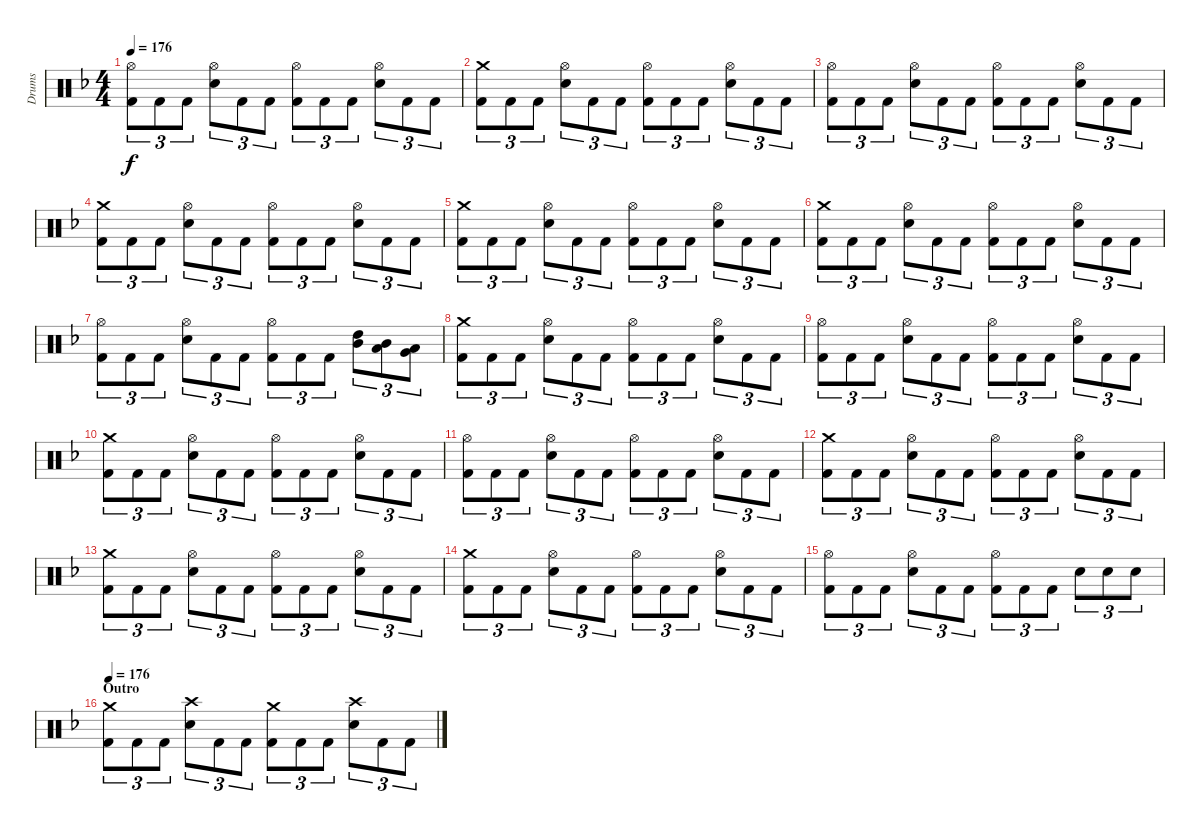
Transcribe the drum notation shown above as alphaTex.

\track ("Drums" "Drums") {instrument percussion}
\staff {score}
\articulation defaults
\ts (4 4)
\tempo 176
\clef neutral
\ks f
("Hi-Hat (open)" "Kick (hit) 2").8{tu (3 2) dy f} "Kick (hit) 2".8{tu (3 2)} "Kick (hit) 2".8{tu (3 2)} ("Hi-Hat (open)" "Snare (hit) 2").8{tu (3 2)} "Kick (hit) 2".8{tu (3 2)} "Kick (hit) 2".8{tu (3 2)} ("Hi-Hat (open)" "Kick (hit) 2").8{tu (3 2)} "Kick (hit) 2".8{tu (3 2)} "Kick (hit) 2".8{tu (3 2)} ("Hi-Hat (open)" "Snare (hit) 2").8{tu (3 2)} "Kick (hit) 2".8{tu (3 2)} "Kick (hit) 2".8{tu (3 2)} |
("Crash medium (hit)" "Kick (hit) 2").8{tu (3 2)} "Kick (hit) 2".8{tu (3 2)} "Kick (hit) 2".8{tu (3 2)} ("Hi-Hat (open)" "Snare (hit) 2").8{tu (3 2)} "Kick (hit) 2".8{tu (3 2)} "Kick (hit) 2".8{tu (3 2)} ("Hi-Hat (open)" "Kick (hit) 2").8{tu (3 2)} "Kick (hit) 2".8{tu (3 2)} "Kick (hit) 2".8{tu (3 2)} ("Hi-Hat (open)" "Snare (hit) 2").8{tu (3 2)} "Kick (hit) 2".8{tu (3 2)} "Kick (hit) 2".8{tu (3 2)} |
("Hi-Hat (open)" "Kick (hit) 2").8{tu (3 2)} "Kick (hit) 2".8{tu (3 2)} "Kick (hit) 2".8{tu (3 2)} ("Hi-Hat (open)" "Snare (hit) 2").8{tu (3 2)} "Kick (hit) 2".8{tu (3 2)} "Kick (hit) 2".8{tu (3 2)} ("Hi-Hat (open)" "Kick (hit) 2").8{tu (3 2)} "Kick (hit) 2".8{tu (3 2)} "Kick (hit) 2".8{tu (3 2)} ("Hi-Hat (open)" "Snare (hit) 2").8{tu (3 2)} "Kick (hit) 2".8{tu (3 2)} "Kick (hit) 2".8{tu (3 2)} |
("Crash medium (hit)" "Kick (hit) 2").8{tu (3 2)} "Kick (hit) 2".8{tu (3 2)} "Kick (hit) 2".8{tu (3 2)} ("Hi-Hat (open)" "Snare (hit) 2").8{tu (3 2)} "Kick (hit) 2".8{tu (3 2)} "Kick (hit) 2".8{tu (3 2)} ("Hi-Hat (open)" "Kick (hit) 2").8{tu (3 2)} "Kick (hit) 2".8{tu (3 2)} "Kick (hit) 2".8{tu (3 2)} ("Hi-Hat (open)" "Snare (hit) 2").8{tu (3 2)} "Kick (hit) 2".8{tu (3 2)} "Kick (hit) 2".8{tu (3 2)} |
("Crash medium (hit)" "Kick (hit) 2").8{tu (3 2)} "Kick (hit) 2".8{tu (3 2)} "Kick (hit) 2".8{tu (3 2)} ("Hi-Hat (open)" "Snare (hit) 2").8{tu (3 2)} "Kick (hit) 2".8{tu (3 2)} "Kick (hit) 2".8{tu (3 2)} ("Hi-Hat (open)" "Kick (hit) 2").8{tu (3 2)} "Kick (hit) 2".8{tu (3 2)} "Kick (hit) 2".8{tu (3 2)} ("Hi-Hat (open)" "Snare (hit) 2").8{tu (3 2)} "Kick (hit) 2".8{tu (3 2)} "Kick (hit) 2".8{tu (3 2)} |
("Crash medium (hit)" "Kick (hit) 2").8{tu (3 2)} "Kick (hit) 2".8{tu (3 2)} "Kick (hit) 2".8{tu (3 2)} ("Hi-Hat (open)" "Snare (hit) 2").8{tu (3 2)} "Kick (hit) 2".8{tu (3 2)} "Kick (hit) 2".8{tu (3 2)} ("Hi-Hat (open)" "Kick (hit) 2").8{tu (3 2)} "Kick (hit) 2".8{tu (3 2)} "Kick (hit) 2".8{tu (3 2)} ("Hi-Hat (open)" "Snare (hit) 2").8{tu (3 2)} "Kick (hit) 2".8{tu (3 2)} "Kick (hit) 2".8{tu (3 2)} |
("Hi-Hat (open)" "Kick (hit) 2").8{tu (3 2)} "Kick (hit) 2".8{tu (3 2)} "Kick (hit) 2".8{tu (3 2)} ("Hi-Hat (open)" "Snare (hit) 2").8{tu (3 2)} "Kick (hit) 2".8{tu (3 2)} "Kick (hit) 2".8{tu (3 2)} ("Hi-Hat (open)" "Kick (hit) 2").8{tu (3 2)} "Kick (hit) 2".8{tu (3 2)} "Kick (hit) 2".8{tu (3 2)} ("High Tom (hit)" "Mid Tom (hit)").8{tu (3 2)} ("Mid Tom (hit)" "Low Tom (hit)").8{tu (3 2)} ("Low Tom (hit)" "Very Low Tom (hit)").8{tu (3 2)} |
("Crash medium (hit)" "Kick (hit) 2").8{tu (3 2)} "Kick (hit) 2".8{tu (3 2)} "Kick (hit) 2".8{tu (3 2)} ("Hi-Hat (open)" "Snare (hit) 2").8{tu (3 2)} "Kick (hit) 2".8{tu (3 2)} "Kick (hit) 2".8{tu (3 2)} ("Hi-Hat (open)" "Kick (hit) 2").8{tu (3 2)} "Kick (hit) 2".8{tu (3 2)} "Kick (hit) 2".8{tu (3 2)} ("Hi-Hat (open)" "Snare (hit) 2").8{tu (3 2)} "Kick (hit) 2".8{tu (3 2)} "Kick (hit) 2".8{tu (3 2)} |
("Hi-Hat (open)" "Kick (hit) 2").8{tu (3 2)} "Kick (hit) 2".8{tu (3 2)} "Kick (hit) 2".8{tu (3 2)} ("Hi-Hat (open)" "Snare (hit) 2").8{tu (3 2)} "Kick (hit) 2".8{tu (3 2)} "Kick (hit) 2".8{tu (3 2)} ("Hi-Hat (open)" "Kick (hit) 2").8{tu (3 2)} "Kick (hit) 2".8{tu (3 2)} "Kick (hit) 2".8{tu (3 2)} ("Hi-Hat (open)" "Snare (hit) 2").8{tu (3 2)} "Kick (hit) 2".8{tu (3 2)} "Kick (hit) 2".8{tu (3 2)} |
("Crash medium (hit)" "Kick (hit) 2").8{tu (3 2)} "Kick (hit) 2".8{tu (3 2)} "Kick (hit) 2".8{tu (3 2)} ("Hi-Hat (open)" "Snare (hit) 2").8{tu (3 2)} "Kick (hit) 2".8{tu (3 2)} "Kick (hit) 2".8{tu (3 2)} ("Hi-Hat (open)" "Kick (hit) 2").8{tu (3 2)} "Kick (hit) 2".8{tu (3 2)} "Kick (hit) 2".8{tu (3 2)} ("Hi-Hat (open)" "Snare (hit) 2").8{tu (3 2)} "Kick (hit) 2".8{tu (3 2)} "Kick (hit) 2".8{tu (3 2)} |
("Hi-Hat (open)" "Kick (hit) 2").8{tu (3 2)} "Kick (hit) 2".8{tu (3 2)} "Kick (hit) 2".8{tu (3 2)} ("Hi-Hat (open)" "Snare (hit) 2").8{tu (3 2)} "Kick (hit) 2".8{tu (3 2)} "Kick (hit) 2".8{tu (3 2)} ("Hi-Hat (open)" "Kick (hit) 2").8{tu (3 2)} "Kick (hit) 2".8{tu (3 2)} "Kick (hit) 2".8{tu (3 2)} ("Hi-Hat (open)" "Snare (hit) 2").8{tu (3 2)} "Kick (hit) 2".8{tu (3 2)} "Kick (hit) 2".8{tu (3 2)} |
("Crash medium (hit)" "Kick (hit) 2").8{tu (3 2)} "Kick (hit) 2".8{tu (3 2)} "Kick (hit) 2".8{tu (3 2)} ("Hi-Hat (open)" "Snare (hit) 2").8{tu (3 2)} "Kick (hit) 2".8{tu (3 2)} "Kick (hit) 2".8{tu (3 2)} ("Hi-Hat (open)" "Kick (hit) 2").8{tu (3 2)} "Kick (hit) 2".8{tu (3 2)} "Kick (hit) 2".8{tu (3 2)} ("Hi-Hat (open)" "Snare (hit) 2").8{tu (3 2)} "Kick (hit) 2".8{tu (3 2)} "Kick (hit) 2".8{tu (3 2)} |
("Crash medium (hit)" "Kick (hit) 2").8{tu (3 2)} "Kick (hit) 2".8{tu (3 2)} "Kick (hit) 2".8{tu (3 2)} ("Hi-Hat (open)" "Snare (hit) 2").8{tu (3 2)} "Kick (hit) 2".8{tu (3 2)} "Kick (hit) 2".8{tu (3 2)} ("Hi-Hat (open)" "Kick (hit) 2").8{tu (3 2)} "Kick (hit) 2".8{tu (3 2)} "Kick (hit) 2".8{tu (3 2)} ("Hi-Hat (open)" "Snare (hit) 2").8{tu (3 2)} "Kick (hit) 2".8{tu (3 2)} "Kick (hit) 2".8{tu (3 2)} |
("Crash medium (hit)" "Kick (hit) 2").8{tu (3 2)} "Kick (hit) 2".8{tu (3 2)} "Kick (hit) 2".8{tu (3 2)} ("Hi-Hat (open)" "Snare (hit) 2").8{tu (3 2)} "Kick (hit) 2".8{tu (3 2)} "Kick (hit) 2".8{tu (3 2)} ("Hi-Hat (open)" "Kick (hit) 2").8{tu (3 2)} "Kick (hit) 2".8{tu (3 2)} "Kick (hit) 2".8{tu (3 2)} ("Hi-Hat (open)" "Snare (hit) 2").8{tu (3 2)} "Kick (hit) 2".8{tu (3 2)} "Kick (hit) 2".8{tu (3 2)} |
("Hi-Hat (open)" "Kick (hit) 2").8{tu (3 2)} "Kick (hit) 2".8{tu (3 2)} "Kick (hit) 2".8{tu (3 2)} ("Hi-Hat (open)" "Snare (hit) 2").8{tu (3 2)} "Kick (hit) 2".8{tu (3 2)} "Kick (hit) 2".8{tu (3 2)} ("Hi-Hat (open)" "Kick (hit) 2").8{tu (3 2)} "Kick (hit) 2".8{tu (3 2)} "Kick (hit) 2".8{tu (3 2)} "Snare (hit) 2".8{tu (3 2)} "Snare (hit) 2".8{tu (3 2)} "Snare (hit) 2".8{tu (3 2)} |
\section ("" "Outro")
\tempo 176
("Crash medium (hit)" "Kick (hit) 2").8{tu (3 2)} "Kick (hit) 2".8{tu (3 2)} "Kick (hit) 2".8{tu (3 2)} ("Crash high (hit)" "Snare (hit) 2").8{tu (3 2)} "Kick (hit) 2".8{tu (3 2)} "Kick (hit) 2".8{tu (3 2)} ("Crash medium (hit)" "Kick (hit) 2").8{tu (3 2)} "Kick (hit) 2".8{tu (3 2)} "Kick (hit) 2".8{tu (3 2)} ("Crash high (hit)" "Snare (hit) 2").8{tu (3 2)} "Kick (hit) 2".8{tu (3 2)} "Kick (hit) 2".8{tu (3 2)}
